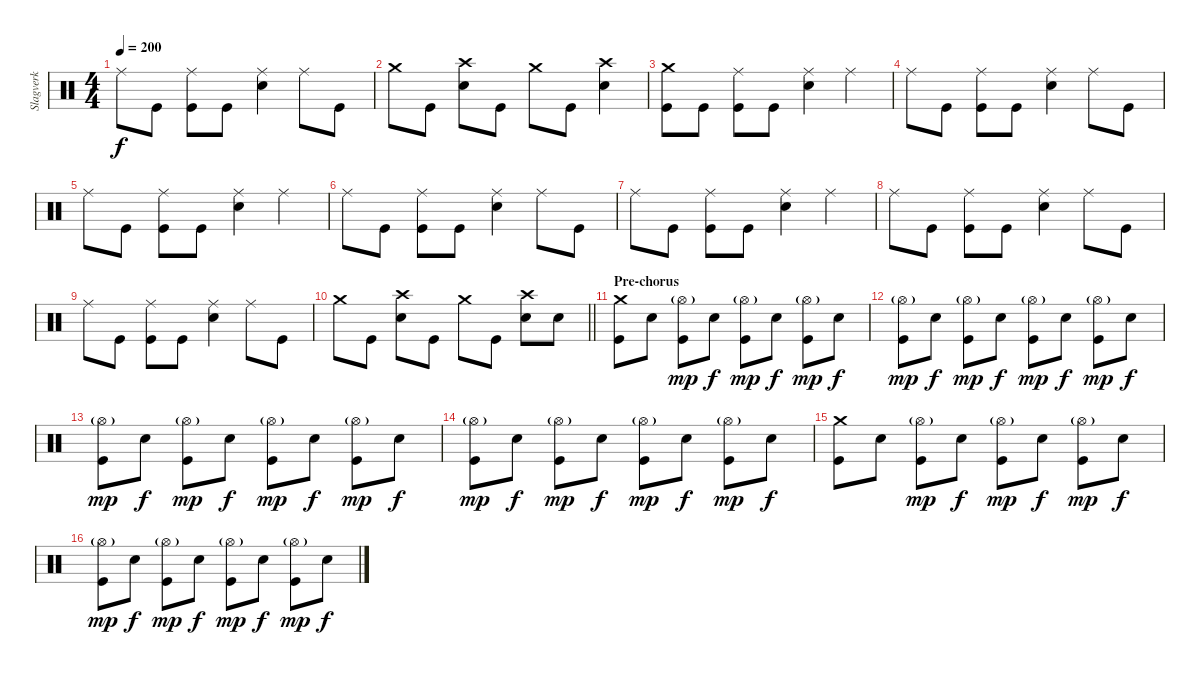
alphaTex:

\track ("Slagverk" "Slagverk") {instrument percussion}
\staff {score}
\articulation defaults
\ts (4 4)
\tempo 200
\clef neutral
\ks c "Ride (middle)".8{dy f} "Kick (hit)".8
("Ride (middle)" "Kick (hit)").8 "Kick (hit)".8 ("Ride (middle)" "Snare (hit) 2").4 "Ride (middle)".8 "Kick (hit)".8 |
"Crash medium (hit)".8 "Kick (hit)".8 ("Crash high (hit)" "Snare (hit) 2").8 "Kick (hit)".8 "Crash medium (hit)".8 "Kick (hit)".8 ("Crash high (hit)" "Snare (hit) 2").4 |
("Crash medium (hit)" "Kick (hit)").8 "Kick (hit)".8 ("Ride (middle)" "Kick (hit)").8 "Kick (hit)".8 ("Ride (middle)" "Snare (hit) 2").4 "Ride (middle)".4 |
"Ride (middle)".8 "Kick (hit)".8 ("Ride (middle)" "Kick (hit)").8 "Kick (hit)".8 ("Ride (middle)" "Snare (hit) 2").4 "Ride (middle)".8 "Kick (hit)".8 |
"Ride (middle)".8 "Kick (hit)".8 ("Ride (middle)" "Kick (hit)").8 "Kick (hit)".8 ("Ride (middle)" "Snare (hit) 2").4 "Ride (middle)".4 |
"Ride (middle)".8 "Kick (hit)".8 ("Ride (middle)" "Kick (hit)").8 "Kick (hit)".8 ("Ride (middle)" "Snare (hit) 2").4 "Ride (middle)".8 "Kick (hit)".8 |
"Ride (middle)".8 "Kick (hit)".8 ("Ride (middle)" "Kick (hit)").8 "Kick (hit)".8 ("Ride (middle)" "Snare (hit) 2").4 "Ride (middle)".4 |
"Ride (middle)".8 "Kick (hit)".8 ("Ride (middle)" "Kick (hit)").8 "Kick (hit)".8 ("Ride (middle)" "Snare (hit) 2").4 "Ride (middle)".8 "Kick (hit)".8 |
"Ride (middle)".8 "Kick (hit)".8 ("Ride (middle)" "Kick (hit)").8 "Kick (hit)".8 ("Ride (middle)" "Snare (hit) 2").4 "Ride (middle)".8 "Kick (hit)".8 |
\barLineRight lightlight "Crash medium (hit)".8 "Kick (hit)".8
("Crash high (hit)" "Snare (hit) 2").8 "Kick (hit)".8 "Crash medium (hit)".8 "Kick (hit)".8 ("Crash high (hit)" "Snare (hit) 2").8 "Snare (hit) 2".8 |
\section ("" "Pre-chorus")
("Crash medium (hit)" "Kick (hit)").8 "Snare (hit) 2".8 ("Hi-Hat (open)"{g} "Kick (hit)").8{dy mp} "Snare (hit) 2".8{dy f} ("Hi-Hat (open)"{g} "Kick (hit)").8{dy mp} "Snare (hit) 2".8{dy f} ("Hi-Hat (open)"{g} "Kick (hit)").8{dy mp} "Snare (hit) 2".8{dy f} |
("Hi-Hat (open)"{g} "Kick (hit)").8{dy mp} "Snare (hit) 2".8{dy f} ("Hi-Hat (open)"{g} "Kick (hit)").8{dy mp} "Snare (hit) 2".8{dy f} ("Hi-Hat (open)"{g} "Kick (hit)").8{dy mp} "Snare (hit) 2".8{dy f} ("Hi-Hat (open)"{g} "Kick (hit)").8{dy mp} "Snare (hit) 2".8{dy f} |
("Hi-Hat (open)"{g} "Kick (hit)").8{dy mp} "Snare (hit) 2".8{dy f} ("Hi-Hat (open)"{g} "Kick (hit)").8{dy mp} "Snare (hit) 2".8{dy f} ("Hi-Hat (open)"{g} "Kick (hit)").8{dy mp} "Snare (hit) 2".8{dy f} ("Hi-Hat (open)"{g} "Kick (hit)").8{dy mp} "Snare (hit) 2".8{dy f} |
("Hi-Hat (open)"{g} "Kick (hit)").8{dy mp} "Snare (hit) 2".8{dy f} ("Hi-Hat (open)"{g} "Kick (hit)").8{dy mp} "Snare (hit) 2".8{dy f} ("Hi-Hat (open)"{g} "Kick (hit)").8{dy mp} "Snare (hit) 2".8{dy f} ("Hi-Hat (open)"{g} "Kick (hit)").8{dy mp} "Snare (hit) 2".8{dy f} |
("Crash medium (hit)" "Kick (hit)").8 "Snare (hit) 2".8 ("Hi-Hat (open)"{g} "Kick (hit)").8{dy mp} "Snare (hit) 2".8{dy f} ("Hi-Hat (open)"{g} "Kick (hit)").8{dy mp} "Snare (hit) 2".8{dy f} ("Hi-Hat (open)"{g} "Kick (hit)").8{dy mp} "Snare (hit) 2".8{dy f} |
("Hi-Hat (open)"{g} "Kick (hit)").8{dy mp} "Snare (hit) 2".8{dy f} ("Hi-Hat (open)"{g} "Kick (hit)").8{dy mp} "Snare (hit) 2".8{dy f} ("Hi-Hat (open)"{g} "Kick (hit)").8{dy mp} "Snare (hit) 2".8{dy f} ("Hi-Hat (open)"{g} "Kick (hit)").8{dy mp} "Snare (hit) 2".8{dy f}
